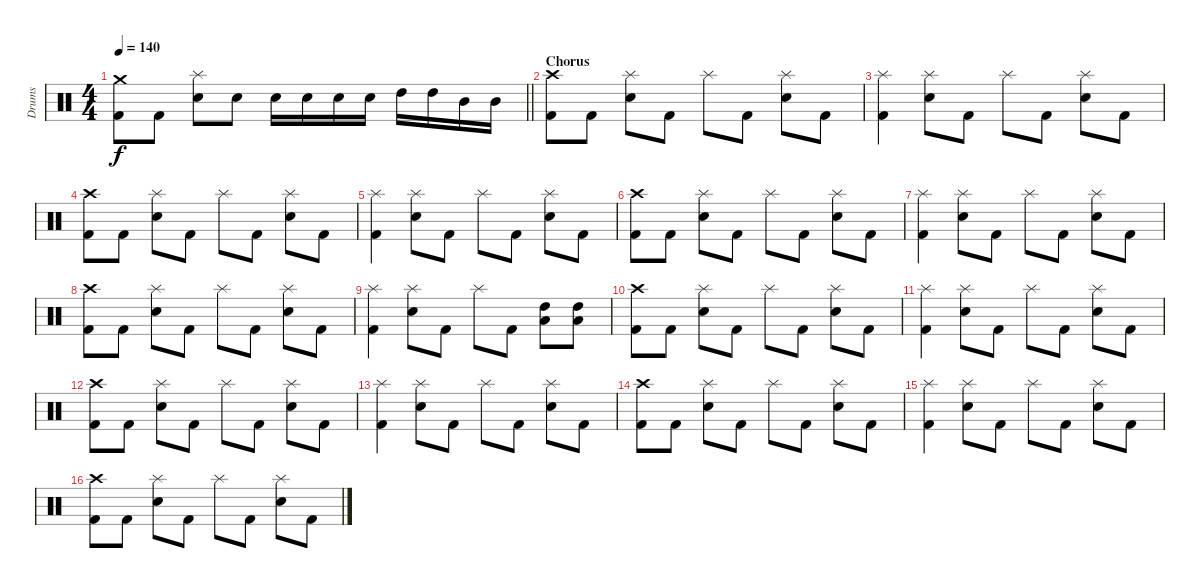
\track ("Drums" "Drums") {instrument percussion}
\staff {score}
\articulation defaults
\ts (4 4)
\tempo 140
\clef neutral
\barLineRight lightlight
\ks c
("Kick (hit) 2" "Crash medium (hit)").8{dy f} "Kick (hit) 2".8 ("Snare (hit) 2" "Splash (hit)").8 "Snare (hit) 2".8 "Snare (hit) 2".16 "Snare (hit) 2".16 "Snare (hit) 2".16 "Snare (hit) 2".16 "High Tom (hit)".16 "High Tom (hit)".16 "Mid Tom (hit)".16 "Mid Tom (hit)".16 |
\section ("" "Chorus")
("Kick (hit) 2" "Crash high (hit)").8 "Kick (hit) 2".8 ("Snare (hit) 2" "Splash (hit)").8 "Kick (hit) 2".8 "Splash (hit)".8 "Kick (hit) 2".8 ("Snare (hit) 2" "Splash (hit)").8 "Kick (hit) 2".8 |
("Kick (hit) 2" "Splash (hit)").4 ("Snare (hit) 2" "Splash (hit)").8 "Kick (hit) 2".8 "Splash (hit)".8 "Kick (hit) 2".8 ("Snare (hit) 2" "Splash (hit)").8 "Kick (hit) 2".8 |
("Kick (hit) 2" "Crash high (hit)").8 "Kick (hit) 2".8 ("Snare (hit) 2" "Splash (hit)").8 "Kick (hit) 2".8 "Splash (hit)".8 "Kick (hit) 2".8 ("Snare (hit) 2" "Splash (hit)").8 "Kick (hit) 2".8 |
("Kick (hit) 2" "Splash (hit)").4 ("Snare (hit) 2" "Splash (hit)").8 "Kick (hit) 2".8 "Splash (hit)".8 "Kick (hit) 2".8 ("Snare (hit) 2" "Splash (hit)").8 "Kick (hit) 2".8 |
("Kick (hit) 2" "Crash high (hit)").8 "Kick (hit) 2".8 ("Snare (hit) 2" "Splash (hit)").8 "Kick (hit) 2".8 "Splash (hit)".8 "Kick (hit) 2".8 ("Snare (hit) 2" "Splash (hit)").8 "Kick (hit) 2".8 |
("Kick (hit) 2" "Splash (hit)").4 ("Snare (hit) 2" "Splash (hit)").8 "Kick (hit) 2".8 "Splash (hit)".8 "Kick (hit) 2".8 ("Snare (hit) 2" "Splash (hit)").8 "Kick (hit) 2".8 |
("Kick (hit) 2" "Crash high (hit)").8 "Kick (hit) 2".8 ("Snare (hit) 2" "Splash (hit)").8 "Kick (hit) 2".8 "Splash (hit)".8 "Kick (hit) 2".8 ("Snare (hit) 2" "Splash (hit)").8 "Kick (hit) 2".8 |
("Kick (hit) 2" "Splash (hit)").4 ("Snare (hit) 2" "Splash (hit)").8 "Kick (hit) 2".8 "Splash (hit)".8 "Kick (hit) 2".8 ("High Tom (hit)" "Low Tom (hit)").8 ("High Tom (hit)" "Low Tom (hit)").8 |
("Kick (hit) 2" "Crash high (hit)").8 "Kick (hit) 2".8 ("Snare (hit) 2" "Splash (hit)").8 "Kick (hit) 2".8 "Splash (hit)".8 "Kick (hit) 2".8 ("Snare (hit) 2" "Splash (hit)").8 "Kick (hit) 2".8 |
("Kick (hit) 2" "Splash (hit)").4 ("Snare (hit) 2" "Splash (hit)").8 "Kick (hit) 2".8 "Splash (hit)".8 "Kick (hit) 2".8 ("Snare (hit) 2" "Splash (hit)").8 "Kick (hit) 2".8 |
("Kick (hit) 2" "Crash high (hit)").8 "Kick (hit) 2".8 ("Snare (hit) 2" "Splash (hit)").8 "Kick (hit) 2".8 "Splash (hit)".8 "Kick (hit) 2".8 ("Snare (hit) 2" "Splash (hit)").8 "Kick (hit) 2".8 |
("Kick (hit) 2" "Splash (hit)").4 ("Snare (hit) 2" "Splash (hit)").8 "Kick (hit) 2".8 "Splash (hit)".8 "Kick (hit) 2".8 ("Snare (hit) 2" "Splash (hit)").8 "Kick (hit) 2".8 |
("Kick (hit) 2" "Crash high (hit)").8 "Kick (hit) 2".8 ("Snare (hit) 2" "Splash (hit)").8 "Kick (hit) 2".8 "Splash (hit)".8 "Kick (hit) 2".8 ("Snare (hit) 2" "Splash (hit)").8 "Kick (hit) 2".8 |
("Kick (hit) 2" "Splash (hit)").4 ("Snare (hit) 2" "Splash (hit)").8 "Kick (hit) 2".8 "Splash (hit)".8 "Kick (hit) 2".8 ("Snare (hit) 2" "Splash (hit)").8 "Kick (hit) 2".8 |
("Kick (hit) 2" "Crash high (hit)").8 "Kick (hit) 2".8 ("Snare (hit) 2" "Splash (hit)").8 "Kick (hit) 2".8 "Splash (hit)".8 "Kick (hit) 2".8 ("Snare (hit) 2" "Splash (hit)").8 "Kick (hit) 2".8
